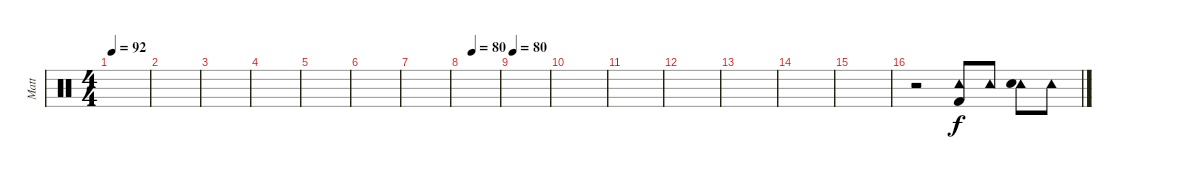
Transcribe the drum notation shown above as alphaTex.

\track ("Matt" "Matt") {instrument percussion}
\staff {score}
\articulation defaults
\ts (4 4)
\tempo 92
\clef neutral
\ks c
|
|
|
|
|
|
|
\tempo (80 0.25)
|
\tempo 80
|
|
|
|
|
|
|
r.2 ("Kick (hit) 2" "Tambourine (hit)").8{volume 8} "Tambourine (hit)".8 ("Tambourine (hit)" "Electric Snare (hit)").8 "Tambourine (hit)".8
